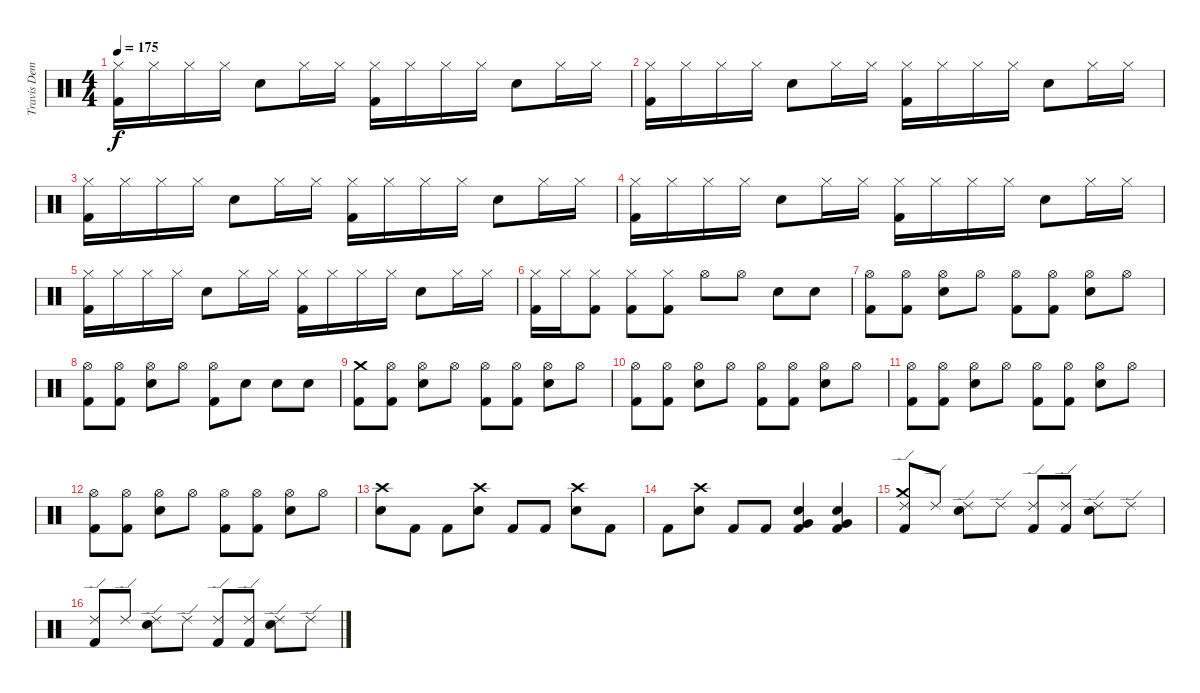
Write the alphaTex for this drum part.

\track ("Travis Dempsey" "Travis Dem") {instrument percussion}
\staff {score}
\articulation defaults
\ts (4 4)
\tempo 175
\clef neutral
\ks c
("Hi-Hat (closed)" "Kick (hit) 2").16{dy f} "Hi-Hat (closed)".16 "Hi-Hat (closed)".16 "Hi-Hat (closed)".16 "Electric Snare (hit)".8 "Hi-Hat (closed)".16 "Hi-Hat (closed)".16 ("Hi-Hat (closed)" "Kick (hit) 2").16 "Hi-Hat (closed)".16 "Hi-Hat (closed)".16 "Hi-Hat (closed)".16 "Electric Snare (hit)".8 "Hi-Hat (closed)".16 "Hi-Hat (closed)".16 |
("Hi-Hat (closed)" "Kick (hit) 2").16 "Hi-Hat (closed)".16 "Hi-Hat (closed)".16 "Hi-Hat (closed)".16 "Electric Snare (hit)".8 "Hi-Hat (closed)".16 "Hi-Hat (closed)".16 ("Hi-Hat (closed)" "Kick (hit) 2").16 "Hi-Hat (closed)".16 "Hi-Hat (closed)".16 "Hi-Hat (closed)".16 "Electric Snare (hit)".8 "Hi-Hat (closed)".16 "Hi-Hat (closed)".16 |
("Hi-Hat (closed)" "Kick (hit) 2").16 "Hi-Hat (closed)".16 "Hi-Hat (closed)".16 "Hi-Hat (closed)".16 "Electric Snare (hit)".8 "Hi-Hat (closed)".16 "Hi-Hat (closed)".16 ("Hi-Hat (closed)" "Kick (hit) 2").16 "Hi-Hat (closed)".16 "Hi-Hat (closed)".16 "Hi-Hat (closed)".16 "Electric Snare (hit)".8 "Hi-Hat (closed)".16 "Hi-Hat (closed)".16 |
("Hi-Hat (closed)" "Kick (hit) 2").16 "Hi-Hat (closed)".16 "Hi-Hat (closed)".16 "Hi-Hat (closed)".16 "Electric Snare (hit)".8 "Hi-Hat (closed)".16 "Hi-Hat (closed)".16 ("Hi-Hat (closed)" "Kick (hit) 2").16 "Hi-Hat (closed)".16 "Hi-Hat (closed)".16 "Hi-Hat (closed)".16 "Electric Snare (hit)".8 "Hi-Hat (closed)".16 "Hi-Hat (closed)".16 |
("Hi-Hat (closed)" "Kick (hit) 2").16 "Hi-Hat (closed)".16 "Hi-Hat (closed)".16 "Hi-Hat (closed)".16 "Electric Snare (hit)".8 "Hi-Hat (closed)".16 "Hi-Hat (closed)".16 ("Hi-Hat (closed)" "Kick (hit) 2").16 "Hi-Hat (closed)".16 "Hi-Hat (closed)".16 "Hi-Hat (closed)".16 "Electric Snare (hit)".8 "Hi-Hat (closed)".16 "Hi-Hat (closed)".16 |
("Hi-Hat (closed)" "Kick (hit) 2").16 "Hi-Hat (closed)".16 ("Hi-Hat (closed)" "Kick (hit) 2").8 ("Hi-Hat (closed)" "Kick (hit) 2").8 ("Hi-Hat (closed)" "Kick (hit) 2").8 "Hi-Hat (open)".8 "Hi-Hat (open)".8 "Electric Snare (hit)".8 "Electric Snare (hit)".8 |
("Hi-Hat (open)" "Kick (hit) 2").8 ("Hi-Hat (open)" "Kick (hit) 2").8 ("Hi-Hat (open)" "Electric Snare (hit)").8 "Hi-Hat (open)".8 ("Hi-Hat (open)" "Kick (hit) 2").8 ("Hi-Hat (open)" "Kick (hit) 2").8 ("Hi-Hat (open)" "Electric Snare (hit)").8 "Hi-Hat (open)".8 |
("Hi-Hat (open)" "Kick (hit) 2").8 ("Hi-Hat (open)" "Kick (hit) 2").8 ("Hi-Hat (open)" "Electric Snare (hit)").8 "Hi-Hat (open)".8 ("Hi-Hat (open)" "Kick (hit) 2").8 "Electric Snare (hit)".8 "Electric Snare (hit)".8 "Electric Snare (hit)".8 |
("Crash medium (hit)" "Kick (hit) 2").8 ("Hi-Hat (open)" "Kick (hit) 2").8 ("Hi-Hat (open)" "Electric Snare (hit)").8 "Hi-Hat (open)".8 ("Hi-Hat (open)" "Kick (hit) 2").8 ("Hi-Hat (open)" "Kick (hit) 2").8 ("Hi-Hat (open)" "Electric Snare (hit)").8 "Hi-Hat (open)".8 |
("Hi-Hat (open)" "Kick (hit) 2").8 ("Hi-Hat (open)" "Kick (hit) 2").8 ("Hi-Hat (open)" "Electric Snare (hit)").8 "Hi-Hat (open)".8 ("Hi-Hat (open)" "Kick (hit) 2").8 ("Hi-Hat (open)" "Kick (hit) 2").8 ("Hi-Hat (open)" "Electric Snare (hit)").8 "Hi-Hat (open)".8 |
("Hi-Hat (open)" "Kick (hit) 2").8 ("Hi-Hat (open)" "Kick (hit) 2").8 ("Hi-Hat (open)" "Electric Snare (hit)").8 "Hi-Hat (open)".8 ("Hi-Hat (open)" "Kick (hit) 2").8 ("Hi-Hat (open)" "Kick (hit) 2").8 ("Hi-Hat (open)" "Electric Snare (hit)").8 "Hi-Hat (open)".8 |
("Hi-Hat (open)" "Kick (hit) 2").8 ("Hi-Hat (open)" "Kick (hit) 2").8 ("Hi-Hat (open)" "Electric Snare (hit)").8 "Hi-Hat (open)".8 ("Hi-Hat (open)" "Kick (hit) 2").8 ("Hi-Hat (open)" "Kick (hit) 2").8 ("Hi-Hat (open)" "Electric Snare (hit)").8 "Hi-Hat (open)".8 |
("Crash high (hit)" "Electric Snare (hit)").8 "Kick (hit) 2".8 "Kick (hit) 2".8 ("Crash high (hit)" "Electric Snare (hit)").8 "Kick (hit) 2".8 "Kick (hit) 2".8 ("Crash high (hit)" "Electric Snare (hit)").8 "Kick (hit) 2".8 |
"Kick (hit) 2".8 ("Crash high (hit)" "Electric Snare (hit)").8 "Kick (hit) 2".8 "Kick (hit) 2".8 ("Electric Snare (hit)" "Very Low Tom (hit)" "Kick (hit) 2").4 ("Electric Snare (hit)" "Very Low Tom (hit)" "Kick (hit) 2").4 |
("Crash medium (hit)" "Ride (edge) 2" "Kick (hit) 2").8 "Ride (edge) 2".8 ("Ride (edge) 2" "Electric Snare (hit)").8 "Ride (edge) 2".8 ("Ride (edge) 2" "Kick (hit) 2").8 ("Ride (edge) 2" "Kick (hit) 2").8 ("Ride (edge) 2" "Electric Snare (hit)").8 "Ride (edge) 2".8 |
("Ride (edge) 2" "Kick (hit) 2").8 "Ride (edge) 2".8 ("Ride (edge) 2" "Electric Snare (hit)").8 "Ride (edge) 2".8 ("Ride (edge) 2" "Kick (hit) 2").8 ("Ride (edge) 2" "Kick (hit) 2").8 ("Ride (edge) 2" "Electric Snare (hit)").8 "Ride (edge) 2".8
